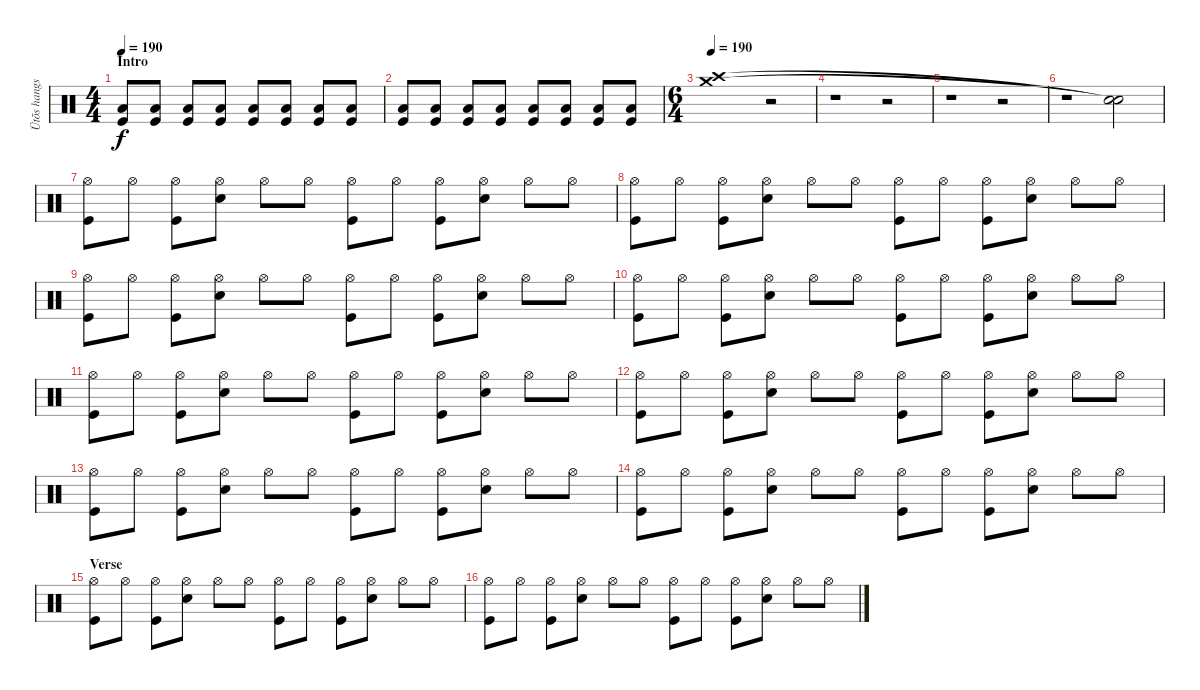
\track ("Ütõs hangszer" "Ütõs hangs") {instrument percussion}
\staff {score}
\articulation defaults
\ts (4 4)
\section ("" "Intro")
\tempo 190
\tempo 150
\tempo 190
\clef neutral
\ks c
("Kick (hit)" "Low Floor Tom (hit)").8{dy f} ("Kick (hit)" "Low Floor Tom (hit)").8 ("Kick (hit)" "Low Floor Tom (hit)").8 ("Kick (hit)" "Low Floor Tom (hit)").8 ("Kick (hit)" "Low Floor Tom (hit)").8 ("Kick (hit)" "Low Floor Tom (hit)").8 ("Kick (hit)" "Low Floor Tom (hit)").8 ("Kick (hit)" "Low Floor Tom (hit)").8 |
("Kick (hit)" "Low Floor Tom (hit)").8 ("Kick (hit)" "Low Floor Tom (hit)").8 ("Kick (hit)" "Low Floor Tom (hit)").8 ("Kick (hit)" "Low Floor Tom (hit)").8 ("Kick (hit)" "Low Floor Tom (hit)").8 ("Kick (hit)" "Low Floor Tom (hit)").8 ("Kick (hit)" "Low Floor Tom (hit)").8 ("Kick (hit)" "Low Floor Tom (hit)").8 |
\ts (6 4)
\tempo 190
("Crash high (hit)" "Crash medium (hit)").1 r.2 |
r.1 r.2 |
r.1 r.2 |
r.1 ("Snare (hit)"{t} "Snare (hit)"{t}).2 |
("Hi-Hat (open)" "Kick (hit)").8 "Hi-Hat (open)".8 ("Hi-Hat (open)" "Kick (hit)").8 ("Hi-Hat (open)" "Snare (hit) 2").8 "Hi-Hat (open)".8 "Hi-Hat (open)".8 ("Hi-Hat (open)" "Kick (hit)").8 "Hi-Hat (open)".8 ("Hi-Hat (open)" "Kick (hit)").8 ("Hi-Hat (open)" "Snare (hit) 2").8 "Hi-Hat (open)".8 "Hi-Hat (open)".8 |
("Hi-Hat (open)" "Kick (hit)").8 "Hi-Hat (open)".8 ("Hi-Hat (open)" "Kick (hit)").8 ("Hi-Hat (open)" "Snare (hit) 2").8 "Hi-Hat (open)".8 "Hi-Hat (open)".8 ("Hi-Hat (open)" "Kick (hit)").8 "Hi-Hat (open)".8 ("Hi-Hat (open)" "Kick (hit)").8 ("Hi-Hat (open)" "Snare (hit) 2").8 "Hi-Hat (open)".8 "Hi-Hat (open)".8 |
("Hi-Hat (open)" "Kick (hit)").8 "Hi-Hat (open)".8 ("Hi-Hat (open)" "Kick (hit)").8 ("Hi-Hat (open)" "Snare (hit) 2").8 "Hi-Hat (open)".8 "Hi-Hat (open)".8 ("Hi-Hat (open)" "Kick (hit)").8 "Hi-Hat (open)".8 ("Hi-Hat (open)" "Kick (hit)").8 ("Hi-Hat (open)" "Snare (hit) 2").8 "Hi-Hat (open)".8 "Hi-Hat (open)".8 |
("Hi-Hat (open)" "Kick (hit)").8 "Hi-Hat (open)".8 ("Hi-Hat (open)" "Kick (hit)").8 ("Hi-Hat (open)" "Snare (hit) 2").8 "Hi-Hat (open)".8 "Hi-Hat (open)".8 ("Hi-Hat (open)" "Kick (hit)").8 "Hi-Hat (open)".8 ("Hi-Hat (open)" "Kick (hit)").8 ("Hi-Hat (open)" "Snare (hit) 2").8 "Hi-Hat (open)".8 "Hi-Hat (open)".8 |
("Hi-Hat (open)" "Kick (hit)").8 "Hi-Hat (open)".8 ("Hi-Hat (open)" "Kick (hit)").8 ("Hi-Hat (open)" "Snare (hit) 2").8 "Hi-Hat (open)".8 "Hi-Hat (open)".8 ("Hi-Hat (open)" "Kick (hit)").8 "Hi-Hat (open)".8 ("Hi-Hat (open)" "Kick (hit)").8 ("Hi-Hat (open)" "Snare (hit) 2").8 "Hi-Hat (open)".8 "Hi-Hat (open)".8 |
("Hi-Hat (open)" "Kick (hit)").8 "Hi-Hat (open)".8 ("Hi-Hat (open)" "Kick (hit)").8 ("Hi-Hat (open)" "Snare (hit) 2").8 "Hi-Hat (open)".8 "Hi-Hat (open)".8 ("Hi-Hat (open)" "Kick (hit)").8 "Hi-Hat (open)".8 ("Hi-Hat (open)" "Kick (hit)").8 ("Hi-Hat (open)" "Snare (hit) 2").8 "Hi-Hat (open)".8 "Hi-Hat (open)".8 |
("Hi-Hat (open)" "Kick (hit)").8 "Hi-Hat (open)".8 ("Hi-Hat (open)" "Kick (hit)").8 ("Hi-Hat (open)" "Snare (hit) 2").8 "Hi-Hat (open)".8 "Hi-Hat (open)".8 ("Hi-Hat (open)" "Kick (hit)").8 "Hi-Hat (open)".8 ("Hi-Hat (open)" "Kick (hit)").8 ("Hi-Hat (open)" "Snare (hit) 2").8 "Hi-Hat (open)".8 "Hi-Hat (open)".8 |
("Hi-Hat (open)" "Kick (hit)").8 "Hi-Hat (open)".8 ("Hi-Hat (open)" "Kick (hit)").8 ("Hi-Hat (open)" "Snare (hit) 2").8 "Hi-Hat (open)".8 "Hi-Hat (open)".8 ("Hi-Hat (open)" "Kick (hit)").8 "Hi-Hat (open)".8 ("Hi-Hat (open)" "Kick (hit)").8 ("Hi-Hat (open)" "Snare (hit) 2").8 "Hi-Hat (open)".8 "Hi-Hat (open)".8 |
\section ("" "Verse")
("Hi-Hat (open)" "Kick (hit)").8 "Hi-Hat (open)".8 ("Hi-Hat (open)" "Kick (hit)").8 ("Hi-Hat (open)" "Snare (hit) 2").8 "Hi-Hat (open)".8 "Hi-Hat (open)".8 ("Hi-Hat (open)" "Kick (hit)").8 "Hi-Hat (open)".8 ("Hi-Hat (open)" "Kick (hit)").8 ("Hi-Hat (open)" "Snare (hit) 2").8 "Hi-Hat (open)".8 "Hi-Hat (open)".8 |
("Hi-Hat (open)" "Kick (hit)").8 "Hi-Hat (open)".8 ("Hi-Hat (open)" "Kick (hit)").8 ("Hi-Hat (open)" "Snare (hit) 2").8 "Hi-Hat (open)".8 "Hi-Hat (open)".8 ("Hi-Hat (open)" "Kick (hit)").8 "Hi-Hat (open)".8 ("Hi-Hat (open)" "Kick (hit)").8 ("Hi-Hat (open)" "Snare (hit) 2").8 "Hi-Hat (open)".8 "Hi-Hat (open)".8
